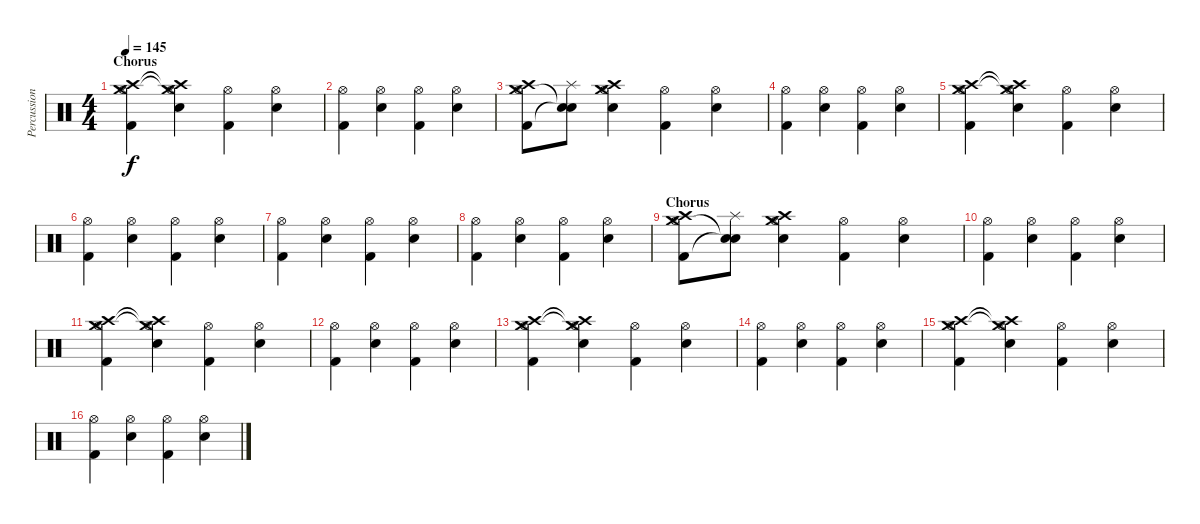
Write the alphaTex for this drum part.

\track ("Percussions" "Percussion") {instrument percussion}
\staff {score}
\articulation defaults
\ts (4 4)
\section ("" "Chorus")
\tempo 145
\clef neutral
\ks c
("Kick (hit) 2" "Hi-Hat (open)" "Crash medium (hit)" "Crash high (hit)").4{dy f} ("Snare (hit) 2" "Hi-Hat (open)" "Crash medium (hit)"{t} "Crash high (hit)"{t}).4 ("Kick (hit) 2" "Hi-Hat (open)").4 ("Snare (hit) 2" "Hi-Hat (open)").4 |
("Kick (hit) 2" "Hi-Hat (open)").4 ("Snare (hit) 2" "Hi-Hat (open)").4 ("Kick (hit) 2" "Hi-Hat (open)").4 ("Snare (hit) 2" "Hi-Hat (open)").4 |
("Kick (hit) 2" "Hi-Hat (open)" "Crash medium (hit)" "Crash high (hit)").8 ("Snare (hit)"{t} "Snare (hit)"{t} "Splash (hit)").8 ("Snare (hit) 2" "Hi-Hat (open)" "Crash medium (hit)" "Crash high (hit)").4 ("Kick (hit) 2" "Hi-Hat (open)").4 ("Snare (hit) 2" "Hi-Hat (open)").4 |
("Kick (hit) 2" "Hi-Hat (open)").4 ("Snare (hit) 2" "Hi-Hat (open)").4 ("Kick (hit) 2" "Hi-Hat (open)").4 ("Snare (hit) 2" "Hi-Hat (open)").4 |
("Kick (hit) 2" "Hi-Hat (open)" "Crash medium (hit)" "Crash high (hit)").4 ("Snare (hit) 2" "Hi-Hat (open)" "Crash medium (hit)"{t} "Crash high (hit)"{t}).4 ("Kick (hit) 2" "Hi-Hat (open)").4 ("Snare (hit) 2" "Hi-Hat (open)").4 |
("Kick (hit) 2" "Hi-Hat (open)").4 ("Snare (hit) 2" "Hi-Hat (open)").4 ("Kick (hit) 2" "Hi-Hat (open)").4 ("Snare (hit) 2" "Hi-Hat (open)").4 |
("Kick (hit) 2" "Hi-Hat (open)").4 ("Snare (hit) 2" "Hi-Hat (open)").4 ("Kick (hit) 2" "Hi-Hat (open)").4 ("Snare (hit) 2" "Hi-Hat (open)").4 |
("Kick (hit) 2" "Hi-Hat (open)").4 ("Snare (hit) 2" "Hi-Hat (open)").4 ("Kick (hit) 2" "Hi-Hat (open)").4 ("Snare (hit) 2" "Hi-Hat (open)").4 |
\section ("" "Chorus")
("Kick (hit) 2" "Hi-Hat (open)" "Crash medium (hit)" "Crash high (hit)").8 ("Snare (hit)"{t} "Snare (hit)"{t} "Splash (hit)").8 ("Snare (hit) 2" "Hi-Hat (open)" "Crash medium (hit)" "Crash high (hit)").4 ("Kick (hit) 2" "Hi-Hat (open)").4 ("Snare (hit) 2" "Hi-Hat (open)").4 |
("Kick (hit) 2" "Hi-Hat (open)").4 ("Snare (hit) 2" "Hi-Hat (open)").4 ("Kick (hit) 2" "Hi-Hat (open)").4 ("Snare (hit) 2" "Hi-Hat (open)").4 |
("Kick (hit) 2" "Hi-Hat (open)" "Crash medium (hit)" "Crash high (hit)").4 ("Snare (hit) 2" "Hi-Hat (open)" "Crash medium (hit)"{t} "Crash high (hit)"{t}).4 ("Kick (hit) 2" "Hi-Hat (open)").4 ("Snare (hit) 2" "Hi-Hat (open)").4 |
("Kick (hit) 2" "Hi-Hat (open)").4 ("Snare (hit) 2" "Hi-Hat (open)").4 ("Kick (hit) 2" "Hi-Hat (open)").4 ("Snare (hit) 2" "Hi-Hat (open)").4 |
("Kick (hit) 2" "Hi-Hat (open)" "Crash medium (hit)" "Crash high (hit)").4 ("Snare (hit) 2" "Hi-Hat (open)" "Crash medium (hit)"{t} "Crash high (hit)"{t}).4 ("Kick (hit) 2" "Hi-Hat (open)").4 ("Snare (hit) 2" "Hi-Hat (open)").4 |
("Kick (hit) 2" "Hi-Hat (open)").4 ("Snare (hit) 2" "Hi-Hat (open)").4 ("Kick (hit) 2" "Hi-Hat (open)").4 ("Snare (hit) 2" "Hi-Hat (open)").4 |
("Kick (hit) 2" "Hi-Hat (open)" "Crash medium (hit)" "Crash high (hit)").4 ("Snare (hit) 2" "Hi-Hat (open)" "Crash medium (hit)"{t} "Crash high (hit)"{t}).4 ("Kick (hit) 2" "Hi-Hat (open)").4 ("Snare (hit) 2" "Hi-Hat (open)").4 |
("Kick (hit) 2" "Hi-Hat (open)").4 ("Snare (hit) 2" "Hi-Hat (open)").4 ("Kick (hit) 2" "Hi-Hat (open)").4 ("Snare (hit) 2" "Hi-Hat (open)").4
